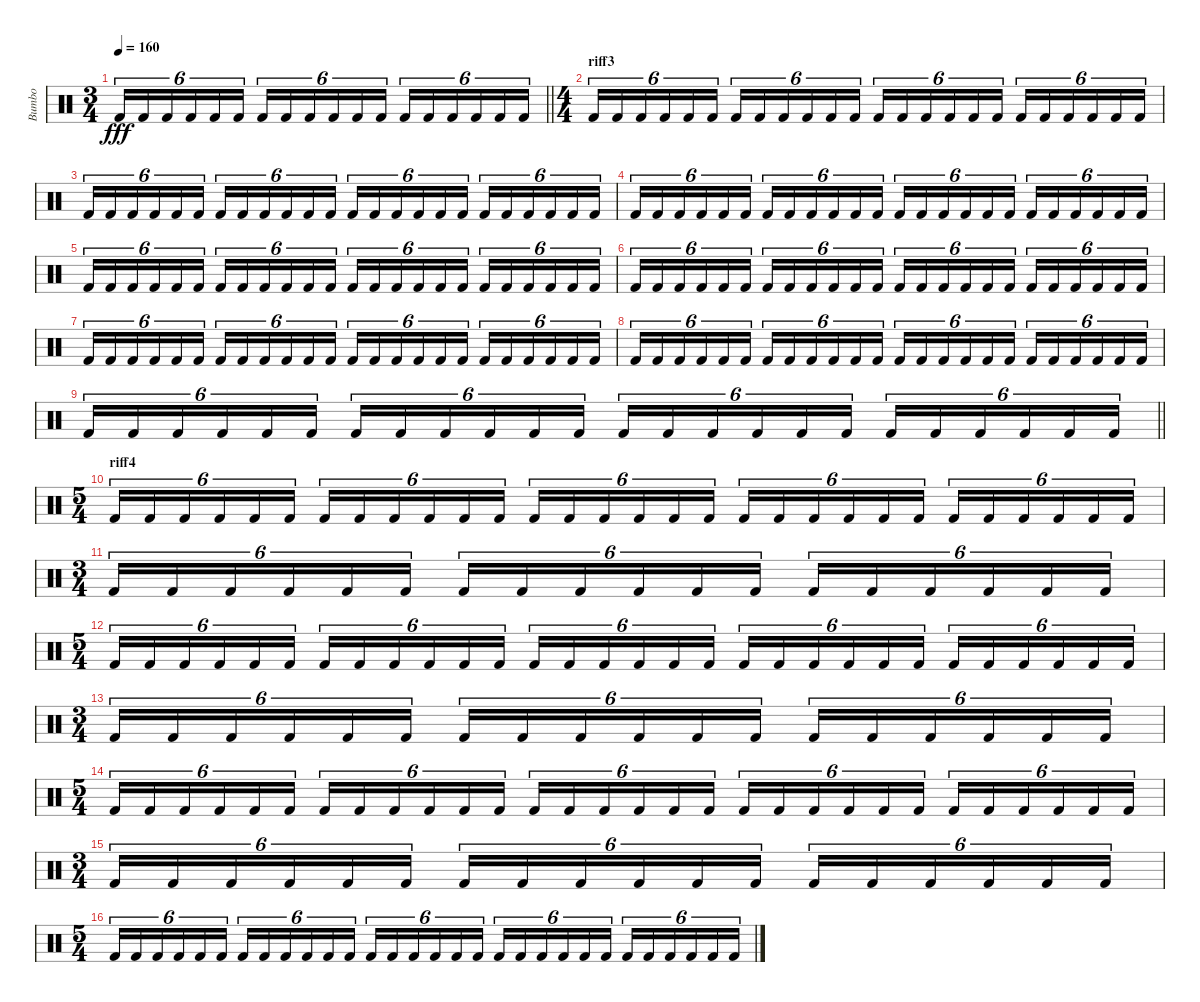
\track ("Bumbo" "Bumbo") {instrument percussion}
\staff {score}
\articulation defaults
\ts (3 4)
\tempo 160
\clef neutral
\barLineRight lightlight
\ks c "Kick (hit) 2".16{tu (6 4) dy fff} "Kick (hit) 2".16{tu (6 4)} "Kick (hit) 2".16{tu (6 4)} "Kick (hit) 2".16{tu (6 4)} "Kick (hit) 2".16{tu (6 4)} "Kick (hit) 2".16{tu (6 4)} "Kick (hit) 2".16{tu (6 4)} "Kick (hit) 2".16{tu (6 4)} "Kick (hit) 2".16{tu (6 4)} "Kick (hit) 2".16{tu (6 4)} "Kick (hit) 2".16{tu (6 4)} "Kick (hit) 2".16{tu (6 4)} "Kick (hit) 2".16{tu (6 4)} "Kick (hit) 2".16{tu (6 4)} "Kick (hit) 2".16{tu (6 4)} "Kick (hit) 2".16{tu (6 4)} "Kick (hit) 2".16{tu (6 4)} "Kick (hit) 2".16{tu (6 4)}
|
\ts (4 4)
\section ("" "riff3")
"Kick (hit) 2".16{tu (6 4)} "Kick (hit) 2".16{tu (6 4)} "Kick (hit) 2".16{tu (6 4)} "Kick (hit) 2".16{tu (6 4)} "Kick (hit) 2".16{tu (6 4)} "Kick (hit) 2".16{tu (6 4)} "Kick (hit) 2".16{tu (6 4)} "Kick (hit) 2".16{tu (6 4)} "Kick (hit) 2".16{tu (6 4)} "Kick (hit) 2".16{tu (6 4)} "Kick (hit) 2".16{tu (6 4)} "Kick (hit) 2".16{tu (6 4)} "Kick (hit) 2".16{tu (6 4)} "Kick (hit) 2".16{tu (6 4)} "Kick (hit) 2".16{tu (6 4)} "Kick (hit) 2".16{tu (6 4)} "Kick (hit) 2".16{tu (6 4)} "Kick (hit) 2".16{tu (6 4)} "Kick (hit) 2".16{tu (6 4)} "Kick (hit) 2".16{tu (6 4)} "Kick (hit) 2".16{tu (6 4)} "Kick (hit) 2".16{tu (6 4)} "Kick (hit) 2".16{tu (6 4)} "Kick (hit) 2".16{tu (6 4)} |
"Kick (hit) 2".16{tu (6 4)} "Kick (hit) 2".16{tu (6 4)} "Kick (hit) 2".16{tu (6 4)} "Kick (hit) 2".16{tu (6 4)} "Kick (hit) 2".16{tu (6 4)} "Kick (hit) 2".16{tu (6 4)} "Kick (hit) 2".16{tu (6 4)} "Kick (hit) 2".16{tu (6 4)} "Kick (hit) 2".16{tu (6 4)} "Kick (hit) 2".16{tu (6 4)} "Kick (hit) 2".16{tu (6 4)} "Kick (hit) 2".16{tu (6 4)} "Kick (hit) 2".16{tu (6 4)} "Kick (hit) 2".16{tu (6 4)} "Kick (hit) 2".16{tu (6 4)} "Kick (hit) 2".16{tu (6 4)} "Kick (hit) 2".16{tu (6 4)} "Kick (hit) 2".16{tu (6 4)} "Kick (hit) 2".16{tu (6 4)} "Kick (hit) 2".16{tu (6 4)} "Kick (hit) 2".16{tu (6 4)} "Kick (hit) 2".16{tu (6 4)} "Kick (hit) 2".16{tu (6 4)} "Kick (hit) 2".16{tu (6 4)} |
"Kick (hit) 2".16{tu (6 4)} "Kick (hit) 2".16{tu (6 4)} "Kick (hit) 2".16{tu (6 4)} "Kick (hit) 2".16{tu (6 4)} "Kick (hit) 2".16{tu (6 4)} "Kick (hit) 2".16{tu (6 4)} "Kick (hit) 2".16{tu (6 4)} "Kick (hit) 2".16{tu (6 4)} "Kick (hit) 2".16{tu (6 4)} "Kick (hit) 2".16{tu (6 4)} "Kick (hit) 2".16{tu (6 4)} "Kick (hit) 2".16{tu (6 4)} "Kick (hit) 2".16{tu (6 4)} "Kick (hit) 2".16{tu (6 4)} "Kick (hit) 2".16{tu (6 4)} "Kick (hit) 2".16{tu (6 4)} "Kick (hit) 2".16{tu (6 4)} "Kick (hit) 2".16{tu (6 4)} "Kick (hit) 2".16{tu (6 4)} "Kick (hit) 2".16{tu (6 4)} "Kick (hit) 2".16{tu (6 4)} "Kick (hit) 2".16{tu (6 4)} "Kick (hit) 2".16{tu (6 4)} "Kick (hit) 2".16{tu (6 4)} |
"Kick (hit) 2".16{tu (6 4)} "Kick (hit) 2".16{tu (6 4)} "Kick (hit) 2".16{tu (6 4)} "Kick (hit) 2".16{tu (6 4)} "Kick (hit) 2".16{tu (6 4)} "Kick (hit) 2".16{tu (6 4)} "Kick (hit) 2".16{tu (6 4)} "Kick (hit) 2".16{tu (6 4)} "Kick (hit) 2".16{tu (6 4)} "Kick (hit) 2".16{tu (6 4)} "Kick (hit) 2".16{tu (6 4)} "Kick (hit) 2".16{tu (6 4)} "Kick (hit) 2".16{tu (6 4)} "Kick (hit) 2".16{tu (6 4)} "Kick (hit) 2".16{tu (6 4)} "Kick (hit) 2".16{tu (6 4)} "Kick (hit) 2".16{tu (6 4)} "Kick (hit) 2".16{tu (6 4)} "Kick (hit) 2".16{tu (6 4)} "Kick (hit) 2".16{tu (6 4)} "Kick (hit) 2".16{tu (6 4)} "Kick (hit) 2".16{tu (6 4)} "Kick (hit) 2".16{tu (6 4)} "Kick (hit) 2".16{tu (6 4)} |
"Kick (hit) 2".16{tu (6 4)} "Kick (hit) 2".16{tu (6 4)} "Kick (hit) 2".16{tu (6 4)} "Kick (hit) 2".16{tu (6 4)} "Kick (hit) 2".16{tu (6 4)} "Kick (hit) 2".16{tu (6 4)} "Kick (hit) 2".16{tu (6 4)} "Kick (hit) 2".16{tu (6 4)} "Kick (hit) 2".16{tu (6 4)} "Kick (hit) 2".16{tu (6 4)} "Kick (hit) 2".16{tu (6 4)} "Kick (hit) 2".16{tu (6 4)} "Kick (hit) 2".16{tu (6 4)} "Kick (hit) 2".16{tu (6 4)} "Kick (hit) 2".16{tu (6 4)} "Kick (hit) 2".16{tu (6 4)} "Kick (hit) 2".16{tu (6 4)} "Kick (hit) 2".16{tu (6 4)} "Kick (hit) 2".16{tu (6 4)} "Kick (hit) 2".16{tu (6 4)} "Kick (hit) 2".16{tu (6 4)} "Kick (hit) 2".16{tu (6 4)} "Kick (hit) 2".16{tu (6 4)} "Kick (hit) 2".16{tu (6 4)} |
"Kick (hit) 2".16{tu (6 4)} "Kick (hit) 2".16{tu (6 4)} "Kick (hit) 2".16{tu (6 4)} "Kick (hit) 2".16{tu (6 4)} "Kick (hit) 2".16{tu (6 4)} "Kick (hit) 2".16{tu (6 4)} "Kick (hit) 2".16{tu (6 4)} "Kick (hit) 2".16{tu (6 4)} "Kick (hit) 2".16{tu (6 4)} "Kick (hit) 2".16{tu (6 4)} "Kick (hit) 2".16{tu (6 4)} "Kick (hit) 2".16{tu (6 4)} "Kick (hit) 2".16{tu (6 4)} "Kick (hit) 2".16{tu (6 4)} "Kick (hit) 2".16{tu (6 4)} "Kick (hit) 2".16{tu (6 4)} "Kick (hit) 2".16{tu (6 4)} "Kick (hit) 2".16{tu (6 4)} "Kick (hit) 2".16{tu (6 4)} "Kick (hit) 2".16{tu (6 4)} "Kick (hit) 2".16{tu (6 4)} "Kick (hit) 2".16{tu (6 4)} "Kick (hit) 2".16{tu (6 4)} "Kick (hit) 2".16{tu (6 4)} |
"Kick (hit) 2".16{tu (6 4)} "Kick (hit) 2".16{tu (6 4)} "Kick (hit) 2".16{tu (6 4)} "Kick (hit) 2".16{tu (6 4)} "Kick (hit) 2".16{tu (6 4)} "Kick (hit) 2".16{tu (6 4)} "Kick (hit) 2".16{tu (6 4)} "Kick (hit) 2".16{tu (6 4)} "Kick (hit) 2".16{tu (6 4)} "Kick (hit) 2".16{tu (6 4)} "Kick (hit) 2".16{tu (6 4)} "Kick (hit) 2".16{tu (6 4)} "Kick (hit) 2".16{tu (6 4)} "Kick (hit) 2".16{tu (6 4)} "Kick (hit) 2".16{tu (6 4)} "Kick (hit) 2".16{tu (6 4)} "Kick (hit) 2".16{tu (6 4)} "Kick (hit) 2".16{tu (6 4)} "Kick (hit) 2".16{tu (6 4)} "Kick (hit) 2".16{tu (6 4)} "Kick (hit) 2".16{tu (6 4)} "Kick (hit) 2".16{tu (6 4)} "Kick (hit) 2".16{tu (6 4)} "Kick (hit) 2".16{tu (6 4)} |
\barLineRight lightlight "Kick (hit) 2".16{tu (6 4)} "Kick (hit) 2".16{tu (6 4)} "Kick (hit) 2".16{tu (6 4)} "Kick (hit) 2".16{tu (6 4)} "Kick (hit) 2".16{tu (6 4)} "Kick (hit) 2".16{tu (6 4)} "Kick (hit) 2".16{tu (6 4)} "Kick (hit) 2".16{tu (6 4)} "Kick (hit) 2".16{tu (6 4)} "Kick (hit) 2".16{tu (6 4)} "Kick (hit) 2".16{tu (6 4)} "Kick (hit) 2".16{tu (6 4)} "Kick (hit) 2".16{tu (6 4)} "Kick (hit) 2".16{tu (6 4)} "Kick (hit) 2".16{tu (6 4)} "Kick (hit) 2".16{tu (6 4)} "Kick (hit) 2".16{tu (6 4)} "Kick (hit) 2".16{tu (6 4)} "Kick (hit) 2".16{tu (6 4)} "Kick (hit) 2".16{tu (6 4)} "Kick (hit) 2".16{tu (6 4)} "Kick (hit) 2".16{tu (6 4)} "Kick (hit) 2".16{tu (6 4)} "Kick (hit) 2".16{tu (6 4)}
|
\ts (5 4)
\section ("" "riff4")
"Kick (hit) 2".16{tu (6 4)} "Kick (hit) 2".16{tu (6 4)} "Kick (hit) 2".16{tu (6 4)} "Kick (hit) 2".16{tu (6 4)} "Kick (hit) 2".16{tu (6 4)} "Kick (hit) 2".16{tu (6 4)} "Kick (hit) 2".16{tu (6 4)} "Kick (hit) 2".16{tu (6 4)} "Kick (hit) 2".16{tu (6 4)} "Kick (hit) 2".16{tu (6 4)} "Kick (hit) 2".16{tu (6 4)} "Kick (hit) 2".16{tu (6 4)} "Kick (hit) 2".16{tu (6 4)} "Kick (hit) 2".16{tu (6 4)} "Kick (hit) 2".16{tu (6 4)} "Kick (hit) 2".16{tu (6 4)} "Kick (hit) 2".16{tu (6 4)} "Kick (hit) 2".16{tu (6 4)} "Kick (hit) 2".16{tu (6 4)} "Kick (hit) 2".16{tu (6 4)} "Kick (hit) 2".16{tu (6 4)} "Kick (hit) 2".16{tu (6 4)} "Kick (hit) 2".16{tu (6 4)} "Kick (hit) 2".16{tu (6 4)} "Kick (hit) 2".16{tu (6 4)} "Kick (hit) 2".16{tu (6 4)} "Kick (hit) 2".16{tu (6 4)} "Kick (hit) 2".16{tu (6 4)} "Kick (hit) 2".16{tu (6 4)} "Kick (hit) 2".16{tu (6 4)} |
\ts (3 4)
"Kick (hit) 2".16{tu (6 4)} "Kick (hit) 2".16{tu (6 4)} "Kick (hit) 2".16{tu (6 4)} "Kick (hit) 2".16{tu (6 4)} "Kick (hit) 2".16{tu (6 4)} "Kick (hit) 2".16{tu (6 4)} "Kick (hit) 2".16{tu (6 4)} "Kick (hit) 2".16{tu (6 4)} "Kick (hit) 2".16{tu (6 4)} "Kick (hit) 2".16{tu (6 4)} "Kick (hit) 2".16{tu (6 4)} "Kick (hit) 2".16{tu (6 4)} "Kick (hit) 2".16{tu (6 4)} "Kick (hit) 2".16{tu (6 4)} "Kick (hit) 2".16{tu (6 4)} "Kick (hit) 2".16{tu (6 4)} "Kick (hit) 2".16{tu (6 4)} "Kick (hit) 2".16{tu (6 4)} |
\ts (5 4)
"Kick (hit) 2".16{tu (6 4)} "Kick (hit) 2".16{tu (6 4)} "Kick (hit) 2".16{tu (6 4)} "Kick (hit) 2".16{tu (6 4)} "Kick (hit) 2".16{tu (6 4)} "Kick (hit) 2".16{tu (6 4)} "Kick (hit) 2".16{tu (6 4)} "Kick (hit) 2".16{tu (6 4)} "Kick (hit) 2".16{tu (6 4)} "Kick (hit) 2".16{tu (6 4)} "Kick (hit) 2".16{tu (6 4)} "Kick (hit) 2".16{tu (6 4)} "Kick (hit) 2".16{tu (6 4)} "Kick (hit) 2".16{tu (6 4)} "Kick (hit) 2".16{tu (6 4)} "Kick (hit) 2".16{tu (6 4)} "Kick (hit) 2".16{tu (6 4)} "Kick (hit) 2".16{tu (6 4)} "Kick (hit) 2".16{tu (6 4)} "Kick (hit) 2".16{tu (6 4)} "Kick (hit) 2".16{tu (6 4)} "Kick (hit) 2".16{tu (6 4)} "Kick (hit) 2".16{tu (6 4)} "Kick (hit) 2".16{tu (6 4)} "Kick (hit) 2".16{tu (6 4)} "Kick (hit) 2".16{tu (6 4)} "Kick (hit) 2".16{tu (6 4)} "Kick (hit) 2".16{tu (6 4)} "Kick (hit) 2".16{tu (6 4)} "Kick (hit) 2".16{tu (6 4)} |
\ts (3 4)
"Kick (hit) 2".16{tu (6 4)} "Kick (hit) 2".16{tu (6 4)} "Kick (hit) 2".16{tu (6 4)} "Kick (hit) 2".16{tu (6 4)} "Kick (hit) 2".16{tu (6 4)} "Kick (hit) 2".16{tu (6 4)} "Kick (hit) 2".16{tu (6 4)} "Kick (hit) 2".16{tu (6 4)} "Kick (hit) 2".16{tu (6 4)} "Kick (hit) 2".16{tu (6 4)} "Kick (hit) 2".16{tu (6 4)} "Kick (hit) 2".16{tu (6 4)} "Kick (hit) 2".16{tu (6 4)} "Kick (hit) 2".16{tu (6 4)} "Kick (hit) 2".16{tu (6 4)} "Kick (hit) 2".16{tu (6 4)} "Kick (hit) 2".16{tu (6 4)} "Kick (hit) 2".16{tu (6 4)} |
\ts (5 4)
"Kick (hit) 2".16{tu (6 4)} "Kick (hit) 2".16{tu (6 4)} "Kick (hit) 2".16{tu (6 4)} "Kick (hit) 2".16{tu (6 4)} "Kick (hit) 2".16{tu (6 4)} "Kick (hit) 2".16{tu (6 4)} "Kick (hit) 2".16{tu (6 4)} "Kick (hit) 2".16{tu (6 4)} "Kick (hit) 2".16{tu (6 4)} "Kick (hit) 2".16{tu (6 4)} "Kick (hit) 2".16{tu (6 4)} "Kick (hit) 2".16{tu (6 4)} "Kick (hit) 2".16{tu (6 4)} "Kick (hit) 2".16{tu (6 4)} "Kick (hit) 2".16{tu (6 4)} "Kick (hit) 2".16{tu (6 4)} "Kick (hit) 2".16{tu (6 4)} "Kick (hit) 2".16{tu (6 4)} "Kick (hit) 2".16{tu (6 4)} "Kick (hit) 2".16{tu (6 4)} "Kick (hit) 2".16{tu (6 4)} "Kick (hit) 2".16{tu (6 4)} "Kick (hit) 2".16{tu (6 4)} "Kick (hit) 2".16{tu (6 4)} "Kick (hit) 2".16{tu (6 4)} "Kick (hit) 2".16{tu (6 4)} "Kick (hit) 2".16{tu (6 4)} "Kick (hit) 2".16{tu (6 4)} "Kick (hit) 2".16{tu (6 4)} "Kick (hit) 2".16{tu (6 4)} |
\ts (3 4)
"Kick (hit) 2".16{tu (6 4)} "Kick (hit) 2".16{tu (6 4)} "Kick (hit) 2".16{tu (6 4)} "Kick (hit) 2".16{tu (6 4)} "Kick (hit) 2".16{tu (6 4)} "Kick (hit) 2".16{tu (6 4)} "Kick (hit) 2".16{tu (6 4)} "Kick (hit) 2".16{tu (6 4)} "Kick (hit) 2".16{tu (6 4)} "Kick (hit) 2".16{tu (6 4)} "Kick (hit) 2".16{tu (6 4)} "Kick (hit) 2".16{tu (6 4)} "Kick (hit) 2".16{tu (6 4)} "Kick (hit) 2".16{tu (6 4)} "Kick (hit) 2".16{tu (6 4)} "Kick (hit) 2".16{tu (6 4)} "Kick (hit) 2".16{tu (6 4)} "Kick (hit) 2".16{tu (6 4)} |
\ts (5 4)
"Kick (hit) 2".16{tu (6 4)} "Kick (hit) 2".16{tu (6 4)} "Kick (hit) 2".16{tu (6 4)} "Kick (hit) 2".16{tu (6 4)} "Kick (hit) 2".16{tu (6 4)} "Kick (hit) 2".16{tu (6 4)} "Kick (hit) 2".16{tu (6 4)} "Kick (hit) 2".16{tu (6 4)} "Kick (hit) 2".16{tu (6 4)} "Kick (hit) 2".16{tu (6 4)} "Kick (hit) 2".16{tu (6 4)} "Kick (hit) 2".16{tu (6 4)} "Kick (hit) 2".16{tu (6 4)} "Kick (hit) 2".16{tu (6 4)} "Kick (hit) 2".16{tu (6 4)} "Kick (hit) 2".16{tu (6 4)} "Kick (hit) 2".16{tu (6 4)} "Kick (hit) 2".16{tu (6 4)} "Kick (hit) 2".16{tu (6 4)} "Kick (hit) 2".16{tu (6 4)} "Kick (hit) 2".16{tu (6 4)} "Kick (hit) 2".16{tu (6 4)} "Kick (hit) 2".16{tu (6 4)} "Kick (hit) 2".16{tu (6 4)} "Kick (hit) 2".16{tu (6 4)} "Kick (hit) 2".16{tu (6 4)} "Kick (hit) 2".16{tu (6 4)} "Kick (hit) 2".16{tu (6 4)} "Kick (hit) 2".16{tu (6 4)} "Kick (hit) 2".16{tu (6 4)}
